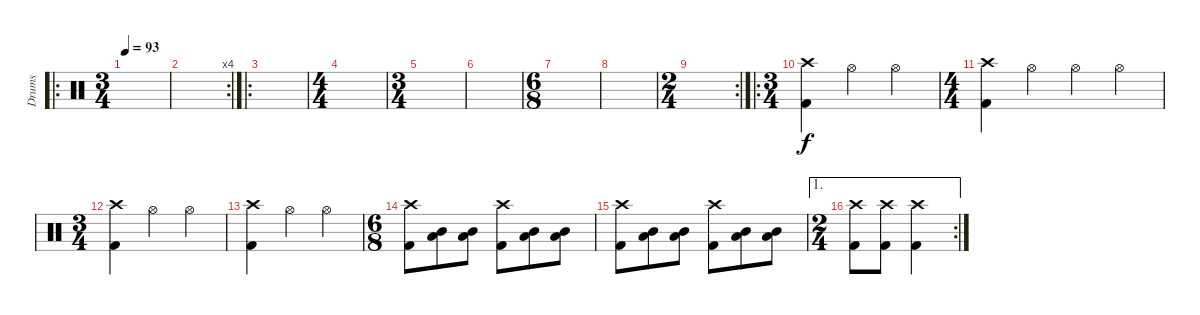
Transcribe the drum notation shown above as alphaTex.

\track ("Drums" "Drums") {instrument percussion}
\staff {score}
\articulation defaults
\ro
\ts (3 4)
\tempo 93
\clef neutral
\ks c
|
\rc 4
|
\ro
|
\ts (4 4)
|
\ts (3 4)
|
|
\ts (6 8)
|
|
\rc 2
\ts (2 4)
|
\ro
\ts (3 4)
("Crash high (hit)" "Kick (hit) 2").4 "Hi-Hat (open)".4 "Hi-Hat (open)".4 |
\ts (4 4)
("Crash high (hit)" "Kick (hit) 2").4 "Hi-Hat (open)".4 "Hi-Hat (open)".4 "Hi-Hat (open)".4 |
\ts (3 4)
("Crash high (hit)" "Kick (hit) 2").4 "Hi-Hat (open)".4 "Hi-Hat (open)".4 |
("Crash high (hit)" "Kick (hit) 2").4 "Hi-Hat (open)".4 "Hi-Hat (open)".4 |
\ts (6 8)
("Crash high (hit)" "Kick (hit) 2").8 ("Mid Tom (hit)" "Low Tom (hit)").8 ("Mid Tom (hit)" "Low Tom (hit)").8 ("Crash high (hit)" "Kick (hit) 2").8 ("Mid Tom (hit)" "Low Tom (hit)").8 ("Mid Tom (hit)" "Low Tom (hit)").8 |
("Crash high (hit)" "Kick (hit) 2").8 ("Mid Tom (hit)" "Low Tom (hit)").8 ("Mid Tom (hit)" "Low Tom (hit)").8 ("Crash high (hit)" "Kick (hit) 2").8 ("Mid Tom (hit)" "Low Tom (hit)").8 ("Mid Tom (hit)" "Low Tom (hit)").8 |
\ae 1
\rc 2
\ts (2 4)
("Crash high (hit)" "Kick (hit) 2").8 ("Crash high (hit)" "Kick (hit) 2").8 ("Crash high (hit)" "Kick (hit) 2").4
